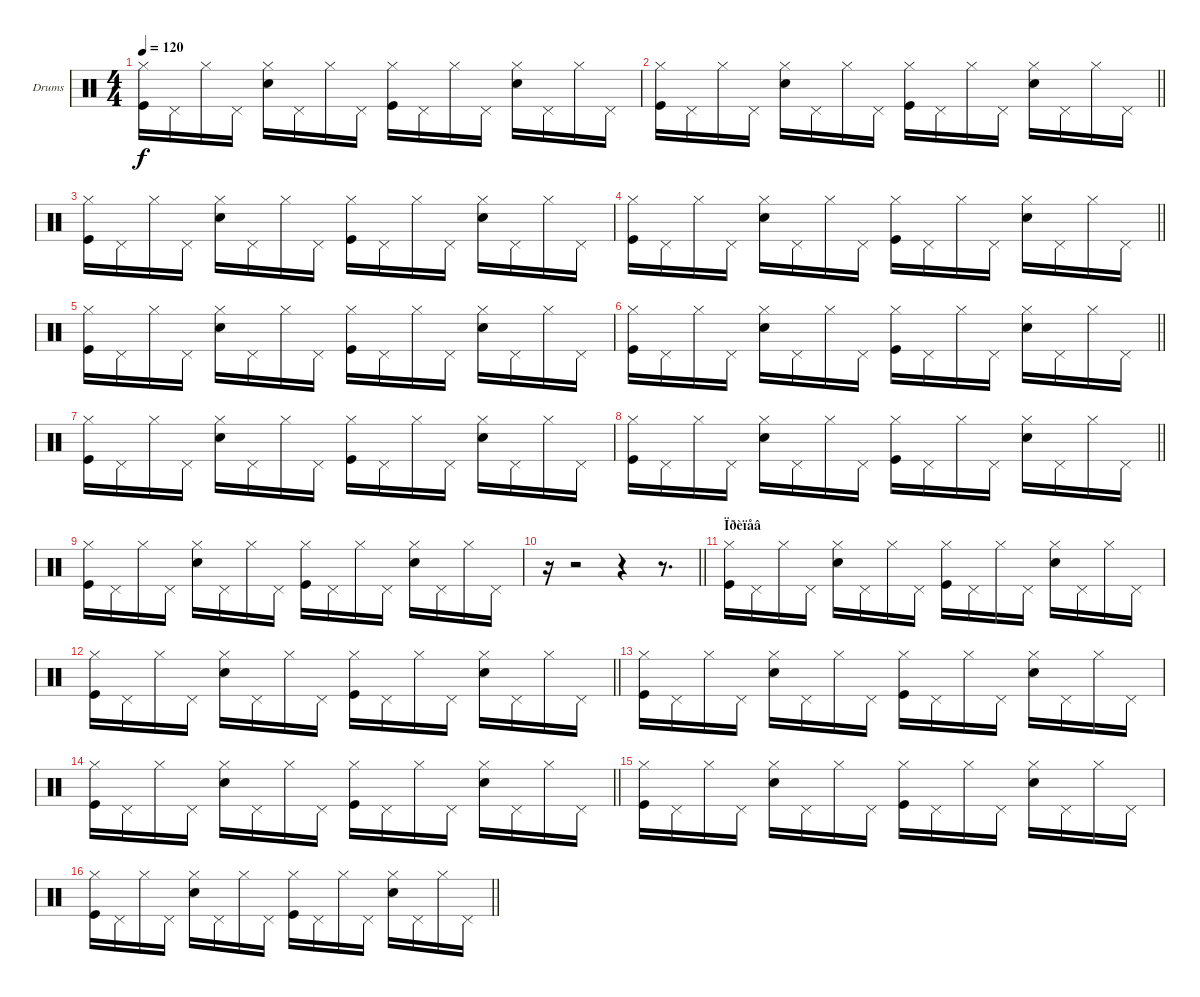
\bracketExtendMode groupsimilarinstruments
\firstSystemTrackNameOrientation horizontal
\otherSystemsTrackNameOrientation horizontal
\track ("Drumkit" "Drums") {instrument percussion}
\staff {score}
\articulation defaults
\ts (4 4)
\tempo 120
\clef neutral
\ks c
("Hi-Hat (closed)" "Kick (hit)").16{dy f} "Pedal Hi-Hat (hit)".16 "Hi-Hat (closed)".16 "Pedal Hi-Hat (hit)".16 ("Hi-Hat (closed)" "Snare (hit) 2").16 "Pedal Hi-Hat (hit)".16 "Hi-Hat (closed)".16 "Pedal Hi-Hat (hit)".16 ("Hi-Hat (closed)" "Kick (hit)").16 "Pedal Hi-Hat (hit)".16 "Hi-Hat (closed)".16 "Pedal Hi-Hat (hit)".16 ("Hi-Hat (closed)" "Snare (hit) 2").16 "Pedal Hi-Hat (hit)".16 "Hi-Hat (closed)".16 "Pedal Hi-Hat (hit)".16 |
\barLineRight lightlight
("Hi-Hat (closed)" "Kick (hit)").16 "Pedal Hi-Hat (hit)".16 "Hi-Hat (closed)".16 "Pedal Hi-Hat (hit)".16 ("Hi-Hat (closed)" "Snare (hit) 2").16 "Pedal Hi-Hat (hit)".16 "Hi-Hat (closed)".16 "Pedal Hi-Hat (hit)".16 ("Hi-Hat (closed)" "Kick (hit)").16 "Pedal Hi-Hat (hit)".16 "Hi-Hat (closed)".16 "Pedal Hi-Hat (hit)".16 ("Hi-Hat (closed)" "Snare (hit) 2").16 "Pedal Hi-Hat (hit)".16 "Hi-Hat (closed)".16 "Pedal Hi-Hat (hit)".16 |
("Hi-Hat (closed)" "Kick (hit)").16 "Pedal Hi-Hat (hit)".16 "Hi-Hat (closed)".16 "Pedal Hi-Hat (hit)".16 ("Hi-Hat (closed)" "Snare (hit) 2").16 "Pedal Hi-Hat (hit)".16 "Hi-Hat (closed)".16 "Pedal Hi-Hat (hit)".16 ("Hi-Hat (closed)" "Kick (hit)").16 "Pedal Hi-Hat (hit)".16 "Hi-Hat (closed)".16 "Pedal Hi-Hat (hit)".16 ("Hi-Hat (closed)" "Snare (hit) 2").16 "Pedal Hi-Hat (hit)".16 "Hi-Hat (closed)".16 "Pedal Hi-Hat (hit)".16 |
\barLineRight lightlight
("Hi-Hat (closed)" "Kick (hit)").16 "Pedal Hi-Hat (hit)".16 "Hi-Hat (closed)".16 "Pedal Hi-Hat (hit)".16 ("Hi-Hat (closed)" "Snare (hit) 2").16 "Pedal Hi-Hat (hit)".16 "Hi-Hat (closed)".16 "Pedal Hi-Hat (hit)".16 ("Hi-Hat (closed)" "Kick (hit)").16 "Pedal Hi-Hat (hit)".16 "Hi-Hat (closed)".16 "Pedal Hi-Hat (hit)".16 ("Hi-Hat (closed)" "Snare (hit) 2").16 "Pedal Hi-Hat (hit)".16 "Hi-Hat (closed)".16 "Pedal Hi-Hat (hit)".16 |
("Hi-Hat (closed)" "Kick (hit)").16 "Pedal Hi-Hat (hit)".16 "Hi-Hat (closed)".16 "Pedal Hi-Hat (hit)".16 ("Hi-Hat (closed)" "Snare (hit) 2").16 "Pedal Hi-Hat (hit)".16 "Hi-Hat (closed)".16 "Pedal Hi-Hat (hit)".16 ("Hi-Hat (closed)" "Kick (hit)").16 "Pedal Hi-Hat (hit)".16 "Hi-Hat (closed)".16 "Pedal Hi-Hat (hit)".16 ("Hi-Hat (closed)" "Snare (hit) 2").16 "Pedal Hi-Hat (hit)".16 "Hi-Hat (closed)".16 "Pedal Hi-Hat (hit)".16 |
\barLineRight lightlight
("Hi-Hat (closed)" "Kick (hit)").16 "Pedal Hi-Hat (hit)".16 "Hi-Hat (closed)".16 "Pedal Hi-Hat (hit)".16 ("Hi-Hat (closed)" "Snare (hit) 2").16 "Pedal Hi-Hat (hit)".16 "Hi-Hat (closed)".16 "Pedal Hi-Hat (hit)".16 ("Hi-Hat (closed)" "Kick (hit)").16 "Pedal Hi-Hat (hit)".16 "Hi-Hat (closed)".16 "Pedal Hi-Hat (hit)".16 ("Hi-Hat (closed)" "Snare (hit) 2").16 "Pedal Hi-Hat (hit)".16 "Hi-Hat (closed)".16 "Pedal Hi-Hat (hit)".16 |
("Hi-Hat (closed)" "Kick (hit)").16 "Pedal Hi-Hat (hit)".16 "Hi-Hat (closed)".16 "Pedal Hi-Hat (hit)".16 ("Hi-Hat (closed)" "Snare (hit) 2").16 "Pedal Hi-Hat (hit)".16 "Hi-Hat (closed)".16 "Pedal Hi-Hat (hit)".16 ("Hi-Hat (closed)" "Kick (hit)").16 "Pedal Hi-Hat (hit)".16 "Hi-Hat (closed)".16 "Pedal Hi-Hat (hit)".16 ("Hi-Hat (closed)" "Snare (hit) 2").16 "Pedal Hi-Hat (hit)".16 "Hi-Hat (closed)".16 "Pedal Hi-Hat (hit)".16 |
\barLineRight lightlight
("Hi-Hat (closed)" "Kick (hit)").16 "Pedal Hi-Hat (hit)".16 "Hi-Hat (closed)".16 "Pedal Hi-Hat (hit)".16 ("Hi-Hat (closed)" "Snare (hit) 2").16 "Pedal Hi-Hat (hit)".16 "Hi-Hat (closed)".16 "Pedal Hi-Hat (hit)".16 ("Hi-Hat (closed)" "Kick (hit)").16 "Pedal Hi-Hat (hit)".16 "Hi-Hat (closed)".16 "Pedal Hi-Hat (hit)".16 ("Hi-Hat (closed)" "Snare (hit) 2").16 "Pedal Hi-Hat (hit)".16 "Hi-Hat (closed)".16 "Pedal Hi-Hat (hit)".16 |
("Hi-Hat (closed)" "Kick (hit)").16 "Pedal Hi-Hat (hit)".16 "Hi-Hat (closed)".16 "Pedal Hi-Hat (hit)".16 ("Hi-Hat (closed)" "Snare (hit) 2").16 "Pedal Hi-Hat (hit)".16 "Hi-Hat (closed)".16 "Pedal Hi-Hat (hit)".16 ("Hi-Hat (closed)" "Kick (hit)").16 "Pedal Hi-Hat (hit)".16 "Hi-Hat (closed)".16 "Pedal Hi-Hat (hit)".16 ("Hi-Hat (closed)" "Snare (hit) 2").16 "Pedal Hi-Hat (hit)".16 "Hi-Hat (closed)".16 "Pedal Hi-Hat (hit)".16 |
\barLineRight lightlight
r.16 r.2 r.4 r.8{d} |
\section ("" "Ïðèïåâ")
("Hi-Hat (closed)" "Kick (hit)").16 "Pedal Hi-Hat (hit)".16 "Hi-Hat (closed)".16 "Pedal Hi-Hat (hit)".16 ("Hi-Hat (closed)" "Snare (hit) 2").16 "Pedal Hi-Hat (hit)".16 "Hi-Hat (closed)".16 "Pedal Hi-Hat (hit)".16 ("Hi-Hat (closed)" "Kick (hit)").16 "Pedal Hi-Hat (hit)".16 "Hi-Hat (closed)".16 "Pedal Hi-Hat (hit)".16 ("Hi-Hat (closed)" "Snare (hit) 2").16 "Pedal Hi-Hat (hit)".16 "Hi-Hat (closed)".16 "Pedal Hi-Hat (hit)".16 |
\barLineRight lightlight
("Hi-Hat (closed)" "Kick (hit)").16 "Pedal Hi-Hat (hit)".16 "Hi-Hat (closed)".16 "Pedal Hi-Hat (hit)".16 ("Hi-Hat (closed)" "Snare (hit) 2").16 "Pedal Hi-Hat (hit)".16 "Hi-Hat (closed)".16 "Pedal Hi-Hat (hit)".16 ("Hi-Hat (closed)" "Kick (hit)").16 "Pedal Hi-Hat (hit)".16 "Hi-Hat (closed)".16 "Pedal Hi-Hat (hit)".16 ("Hi-Hat (closed)" "Snare (hit) 2").16 "Pedal Hi-Hat (hit)".16 "Hi-Hat (closed)".16 "Pedal Hi-Hat (hit)".16 |
("Hi-Hat (closed)" "Kick (hit)").16 "Pedal Hi-Hat (hit)".16 "Hi-Hat (closed)".16 "Pedal Hi-Hat (hit)".16 ("Hi-Hat (closed)" "Snare (hit) 2").16 "Pedal Hi-Hat (hit)".16 "Hi-Hat (closed)".16 "Pedal Hi-Hat (hit)".16 ("Hi-Hat (closed)" "Kick (hit)").16 "Pedal Hi-Hat (hit)".16 "Hi-Hat (closed)".16 "Pedal Hi-Hat (hit)".16 ("Hi-Hat (closed)" "Snare (hit) 2").16 "Pedal Hi-Hat (hit)".16 "Hi-Hat (closed)".16 "Pedal Hi-Hat (hit)".16 |
\barLineRight lightlight
("Hi-Hat (closed)" "Kick (hit)").16 "Pedal Hi-Hat (hit)".16 "Hi-Hat (closed)".16 "Pedal Hi-Hat (hit)".16 ("Hi-Hat (closed)" "Snare (hit) 2").16 "Pedal Hi-Hat (hit)".16 "Hi-Hat (closed)".16 "Pedal Hi-Hat (hit)".16 ("Hi-Hat (closed)" "Kick (hit)").16 "Pedal Hi-Hat (hit)".16 "Hi-Hat (closed)".16 "Pedal Hi-Hat (hit)".16 ("Hi-Hat (closed)" "Snare (hit) 2").16 "Pedal Hi-Hat (hit)".16 "Hi-Hat (closed)".16 "Pedal Hi-Hat (hit)".16 |
("Hi-Hat (closed)" "Kick (hit)").16 "Pedal Hi-Hat (hit)".16 "Hi-Hat (closed)".16 "Pedal Hi-Hat (hit)".16 ("Hi-Hat (closed)" "Snare (hit) 2").16 "Pedal Hi-Hat (hit)".16 "Hi-Hat (closed)".16 "Pedal Hi-Hat (hit)".16 ("Hi-Hat (closed)" "Kick (hit)").16 "Pedal Hi-Hat (hit)".16 "Hi-Hat (closed)".16 "Pedal Hi-Hat (hit)".16 ("Hi-Hat (closed)" "Snare (hit) 2").16 "Pedal Hi-Hat (hit)".16 "Hi-Hat (closed)".16 "Pedal Hi-Hat (hit)".16 |
\barLineRight lightlight
("Hi-Hat (closed)" "Kick (hit)").16 "Pedal Hi-Hat (hit)".16 "Hi-Hat (closed)".16 "Pedal Hi-Hat (hit)".16 ("Hi-Hat (closed)" "Snare (hit) 2").16 "Pedal Hi-Hat (hit)".16 "Hi-Hat (closed)".16 "Pedal Hi-Hat (hit)".16 ("Hi-Hat (closed)" "Kick (hit)").16 "Pedal Hi-Hat (hit)".16 "Hi-Hat (closed)".16 "Pedal Hi-Hat (hit)".16 ("Hi-Hat (closed)" "Snare (hit) 2").16 "Pedal Hi-Hat (hit)".16 "Hi-Hat (closed)".16 "Pedal Hi-Hat (hit)".16
